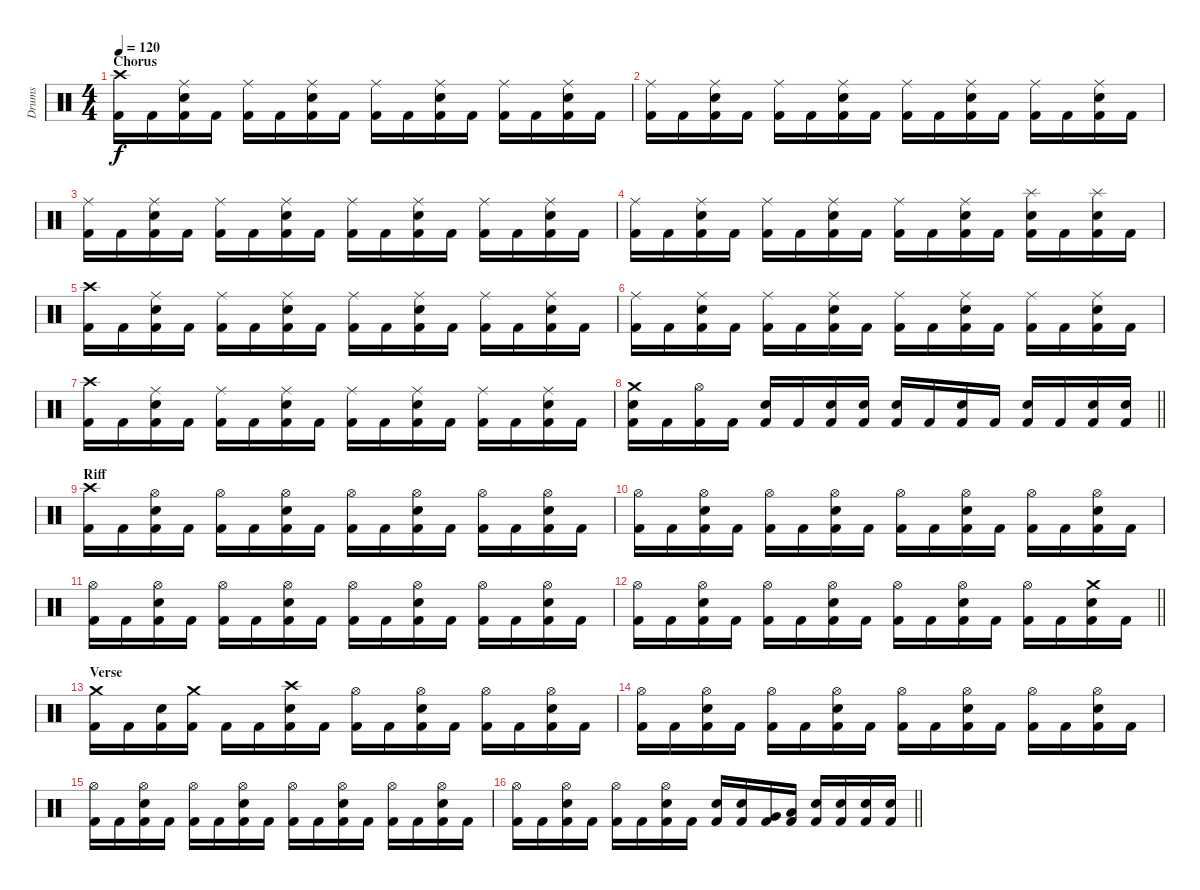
\track ("Drums" "Drums") {instrument percussion}
\staff {score}
\articulation defaults
\ts (4 4)
\section ("" "Chorus")
\tempo 120
\clef neutral
\ks c
("Crash high (hit)" "Kick (hit) 2").16{dy f} "Kick (hit) 2".16 ("Ride (middle)" "Snare (hit) 2" "Kick (hit) 2").16 "Kick (hit) 2".16 ("Ride (middle)" "Kick (hit) 2").16 "Kick (hit) 2".16 ("Ride (middle)" "Snare (hit) 2" "Kick (hit) 2").16 "Kick (hit) 2".16 ("Ride (middle)" "Kick (hit) 2").16 "Kick (hit) 2".16 ("Ride (middle)" "Snare (hit) 2" "Kick (hit) 2").16 "Kick (hit) 2".16 ("Ride (middle)" "Kick (hit) 2").16 "Kick (hit) 2".16 ("Ride (middle)" "Snare (hit) 2" "Kick (hit) 2").16 "Kick (hit) 2".16 |
("Ride (middle)" "Kick (hit) 2").16 "Kick (hit) 2".16 ("Ride (middle)" "Snare (hit) 2" "Kick (hit) 2").16 "Kick (hit) 2".16 ("Ride (middle)" "Kick (hit) 2").16 "Kick (hit) 2".16 ("Ride (middle)" "Snare (hit) 2" "Kick (hit) 2").16 "Kick (hit) 2".16 ("Ride (middle)" "Kick (hit) 2").16 "Kick (hit) 2".16 ("Ride (middle)" "Snare (hit) 2" "Kick (hit) 2").16 "Kick (hit) 2".16 ("Ride (middle)" "Kick (hit) 2").16 "Kick (hit) 2".16 ("Ride (middle)" "Snare (hit) 2" "Kick (hit) 2").16 "Kick (hit) 2".16 |
("Ride (middle)" "Kick (hit) 2").16 "Kick (hit) 2".16 ("Ride (middle)" "Snare (hit) 2" "Kick (hit) 2").16 "Kick (hit) 2".16 ("Ride (middle)" "Kick (hit) 2").16 "Kick (hit) 2".16 ("Ride (middle)" "Snare (hit) 2" "Kick (hit) 2").16 "Kick (hit) 2".16 ("Ride (middle)" "Kick (hit) 2").16 "Kick (hit) 2".16 ("Ride (middle)" "Snare (hit) 2" "Kick (hit) 2").16 "Kick (hit) 2".16 ("Ride (middle)" "Kick (hit) 2").16 "Kick (hit) 2".16 ("Ride (middle)" "Snare (hit) 2" "Kick (hit) 2").16 "Kick (hit) 2".16 |
("Ride (middle)" "Kick (hit) 2").16 "Kick (hit) 2".16 ("Ride (middle)" "Snare (hit) 2" "Kick (hit) 2").16 "Kick (hit) 2".16 ("Ride (middle)" "Kick (hit) 2").16 "Kick (hit) 2".16 ("Ride (middle)" "Snare (hit) 2" "Kick (hit) 2").16 "Kick (hit) 2".16 ("Ride (middle)" "Kick (hit) 2").16 "Kick (hit) 2".16 ("Ride (middle)" "Snare (hit) 2" "Kick (hit) 2").16 "Kick (hit) 2".16 ("Splash (hit)" "Snare (hit) 2" "Kick (hit) 2").16 "Kick (hit) 2".16 ("Splash (hit)" "Snare (hit) 2" "Kick (hit) 2").16 "Kick (hit) 2".16 |
("Crash high (hit)" "Kick (hit) 2").16 "Kick (hit) 2".16 ("Ride (middle)" "Snare (hit) 2" "Kick (hit) 2").16 "Kick (hit) 2".16 ("Ride (middle)" "Kick (hit) 2").16 "Kick (hit) 2".16 ("Ride (middle)" "Snare (hit) 2" "Kick (hit) 2").16 "Kick (hit) 2".16 ("Ride (middle)" "Kick (hit) 2").16 "Kick (hit) 2".16 ("Ride (middle)" "Snare (hit) 2" "Kick (hit) 2").16 "Kick (hit) 2".16 ("Ride (middle)" "Kick (hit) 2").16 "Kick (hit) 2".16 ("Ride (middle)" "Snare (hit) 2" "Kick (hit) 2").16 "Kick (hit) 2".16 |
("Ride (middle)" "Kick (hit) 2").16 "Kick (hit) 2".16 ("Ride (middle)" "Snare (hit) 2" "Kick (hit) 2").16 "Kick (hit) 2".16 ("Ride (middle)" "Kick (hit) 2").16 "Kick (hit) 2".16 ("Ride (middle)" "Snare (hit) 2" "Kick (hit) 2").16 "Kick (hit) 2".16 ("Ride (middle)" "Kick (hit) 2").16 "Kick (hit) 2".16 ("Ride (middle)" "Snare (hit) 2" "Kick (hit) 2").16 "Kick (hit) 2".16 ("Ride (middle)" "Kick (hit) 2").16 "Kick (hit) 2".16 ("Ride (middle)" "Snare (hit) 2" "Kick (hit) 2").16 "Kick (hit) 2".16 |
("Crash high (hit)" "Kick (hit) 2").16 "Kick (hit) 2".16 ("Ride (middle)" "Snare (hit) 2" "Kick (hit) 2").16 "Kick (hit) 2".16 ("Ride (middle)" "Kick (hit) 2").16 "Kick (hit) 2".16 ("Ride (middle)" "Snare (hit) 2" "Kick (hit) 2").16 "Kick (hit) 2".16 ("Ride (middle)" "Kick (hit) 2").16 "Kick (hit) 2".16 ("Ride (middle)" "Snare (hit) 2" "Kick (hit) 2").16 "Kick (hit) 2".16 ("Ride (middle)" "Kick (hit) 2").16 "Kick (hit) 2".16 ("Ride (middle)" "Snare (hit) 2" "Kick (hit) 2").16 "Kick (hit) 2".16 |
\barLineRight lightlight
("Crash medium (hit)" "Snare (hit) 2" "Kick (hit) 2").16 "Kick (hit) 2".16 ("Hi-Hat (open)" "Kick (hit) 2").16 "Kick (hit) 2".16 ("Snare (hit) 2" "Kick (hit) 2").16 "Kick (hit) 2".16 ("Snare (hit) 2" "Kick (hit) 2").16 ("Snare (hit) 2" "Kick (hit) 2").16 ("Snare (hit) 2" "Kick (hit) 2").16 "Kick (hit) 2".16 ("Snare (hit) 2" "Kick (hit) 2").16 "Kick (hit) 2".16 ("Snare (hit) 2" "Kick (hit) 2").16 "Kick (hit) 2".16 ("Snare (hit) 2" "Kick (hit) 2").16 ("Snare (hit) 2" "Kick (hit) 2").16 |
\section ("" "Riff")
("Crash high (hit)" "Kick (hit) 2").16 "Kick (hit) 2".16 ("Hi-Hat (open)" "Snare (hit) 2" "Kick (hit) 2").16 "Kick (hit) 2".16 ("Hi-Hat (open)" "Kick (hit) 2").16 "Kick (hit) 2".16 ("Hi-Hat (open)" "Snare (hit) 2" "Kick (hit) 2").16 "Kick (hit) 2".16 ("Hi-Hat (open)" "Kick (hit) 2").16 "Kick (hit) 2".16 ("Hi-Hat (open)" "Snare (hit) 2" "Kick (hit) 2").16 "Kick (hit) 2".16 ("Hi-Hat (open)" "Kick (hit) 2").16 "Kick (hit) 2".16 ("Hi-Hat (open)" "Snare (hit) 2" "Kick (hit) 2").16 "Kick (hit) 2".16 |
("Hi-Hat (open)" "Kick (hit) 2").16 "Kick (hit) 2".16 ("Hi-Hat (open)" "Snare (hit) 2" "Kick (hit) 2").16 "Kick (hit) 2".16 ("Hi-Hat (open)" "Kick (hit) 2").16 "Kick (hit) 2".16 ("Hi-Hat (open)" "Snare (hit) 2" "Kick (hit) 2").16 "Kick (hit) 2".16 ("Hi-Hat (open)" "Kick (hit) 2").16 "Kick (hit) 2".16 ("Hi-Hat (open)" "Snare (hit) 2" "Kick (hit) 2").16 "Kick (hit) 2".16 ("Hi-Hat (open)" "Kick (hit) 2").16 "Kick (hit) 2".16 ("Hi-Hat (open)" "Snare (hit) 2" "Kick (hit) 2").16 "Kick (hit) 2".16 |
("Hi-Hat (open)" "Kick (hit) 2").16 "Kick (hit) 2".16 ("Hi-Hat (open)" "Snare (hit) 2" "Kick (hit) 2").16 "Kick (hit) 2".16 ("Hi-Hat (open)" "Kick (hit) 2").16 "Kick (hit) 2".16 ("Hi-Hat (open)" "Snare (hit) 2" "Kick (hit) 2").16 "Kick (hit) 2".16 ("Hi-Hat (open)" "Kick (hit) 2").16 "Kick (hit) 2".16 ("Hi-Hat (open)" "Snare (hit) 2" "Kick (hit) 2").16 "Kick (hit) 2".16 ("Hi-Hat (open)" "Kick (hit) 2").16 "Kick (hit) 2".16 ("Hi-Hat (open)" "Snare (hit) 2" "Kick (hit) 2").16 "Kick (hit) 2".16 |
\barLineRight lightlight
("Hi-Hat (open)" "Kick (hit) 2").16 "Kick (hit) 2".16 ("Hi-Hat (open)" "Snare (hit) 2" "Kick (hit) 2").16 "Kick (hit) 2".16 ("Hi-Hat (open)" "Kick (hit) 2").16 "Kick (hit) 2".16 ("Hi-Hat (open)" "Snare (hit) 2" "Kick (hit) 2").16 "Kick (hit) 2".16 ("Hi-Hat (open)" "Kick (hit) 2").16 "Kick (hit) 2".16 ("Hi-Hat (open)" "Snare (hit) 2" "Kick (hit) 2").16 "Kick (hit) 2".16 ("Hi-Hat (open)" "Kick (hit) 2").16 "Kick (hit) 2".16 ("Crash medium (hit)" "Snare (hit) 2" "Kick (hit) 2").16 "Kick (hit) 2".16 |
\section ("" "Verse")
("Crash medium (hit)" "Kick (hit) 2").16 "Kick (hit) 2".16 ("Snare (hit) 2" "Kick (hit) 2").16 ("Crash medium (hit)" "Kick (hit) 2").16 "Kick (hit) 2".16 "Kick (hit) 2".16 ("Crash high (hit)" "Snare (hit) 2" "Kick (hit) 2").16 "Kick (hit) 2".16 ("Hi-Hat (open)" "Kick (hit) 2").16 "Kick (hit) 2".16 ("Hi-Hat (open)" "Snare (hit) 2" "Kick (hit) 2").16 "Kick (hit) 2".16 ("Hi-Hat (open)" "Kick (hit) 2").16 "Kick (hit) 2".16 ("Hi-Hat (open)" "Snare (hit) 2" "Kick (hit) 2").16 "Kick (hit) 2".16 |
("Hi-Hat (open)" "Kick (hit) 2").16 "Kick (hit) 2".16 ("Hi-Hat (open)" "Snare (hit) 2" "Kick (hit) 2").16 "Kick (hit) 2".16 ("Hi-Hat (open)" "Kick (hit) 2").16 "Kick (hit) 2".16 ("Hi-Hat (open)" "Snare (hit) 2" "Kick (hit) 2").16 "Kick (hit) 2".16 ("Hi-Hat (open)" "Kick (hit) 2").16 "Kick (hit) 2".16 ("Hi-Hat (open)" "Snare (hit) 2" "Kick (hit) 2").16 "Kick (hit) 2".16 ("Hi-Hat (open)" "Kick (hit) 2").16 "Kick (hit) 2".16 ("Hi-Hat (open)" "Snare (hit) 2" "Kick (hit) 2").16 "Kick (hit) 2".16 |
("Hi-Hat (open)" "Kick (hit) 2").16 "Kick (hit) 2".16 ("Hi-Hat (open)" "Snare (hit) 2" "Kick (hit) 2").16 "Kick (hit) 2".16 ("Hi-Hat (open)" "Kick (hit) 2").16 "Kick (hit) 2".16 ("Hi-Hat (open)" "Snare (hit) 2" "Kick (hit) 2").16 "Kick (hit) 2".16 ("Hi-Hat (open)" "Kick (hit) 2").16 "Kick (hit) 2".16 ("Hi-Hat (open)" "Snare (hit) 2" "Kick (hit) 2").16 "Kick (hit) 2".16 ("Hi-Hat (open)" "Kick (hit) 2").16 "Kick (hit) 2".16 ("Hi-Hat (open)" "Snare (hit) 2" "Kick (hit) 2").16 "Kick (hit) 2".16 |
\barLineRight lightlight
("Hi-Hat (open)" "Kick (hit) 2").16 "Kick (hit) 2".16 ("Hi-Hat (open)" "Snare (hit) 2" "Kick (hit) 2").16 "Kick (hit) 2".16 ("Hi-Hat (open)" "Kick (hit) 2").16 "Kick (hit) 2".16 ("Hi-Hat (open)" "Snare (hit) 2" "Kick (hit) 2").16 "Kick (hit) 2".16 ("Snare (hit) 2" "Kick (hit) 2").16 ("Snare (hit) 2" "Kick (hit) 2").16 ("Very Low Tom (hit)" "Kick (hit) 2").16 ("Low Floor Tom (hit)" "Kick (hit) 2").16 ("Snare (hit) 2" "Kick (hit) 2").16 ("Snare (hit) 2" "Kick (hit) 2").16 ("Snare (hit) 2" "Kick (hit) 2").16 ("Snare (hit) 2" "Kick (hit) 2").16
